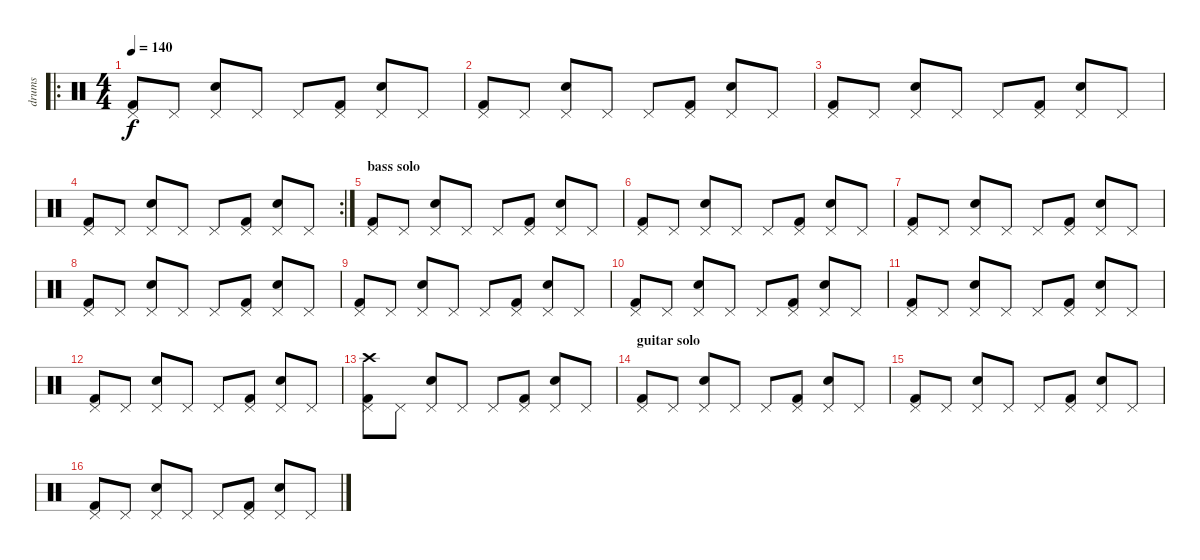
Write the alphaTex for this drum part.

\track ("drums" "drums") {instrument percussion}
\staff {score}
\articulation defaults
\ro
\ts (4 4)
\tempo 140
\clef neutral
\ks c
("Kick (hit) 2" "Pedal Hi-Hat (hit)").8{dy f} "Pedal Hi-Hat (hit)".8 ("Snare (hit) 2" "Pedal Hi-Hat (hit)").8 "Pedal Hi-Hat (hit)".8 "Pedal Hi-Hat (hit)".8 ("Kick (hit) 2" "Pedal Hi-Hat (hit)").8 ("Snare (hit) 2" "Pedal Hi-Hat (hit)").8 "Pedal Hi-Hat (hit)".8 |
("Kick (hit) 2" "Pedal Hi-Hat (hit)").8 "Pedal Hi-Hat (hit)".8 ("Snare (hit) 2" "Pedal Hi-Hat (hit)").8 "Pedal Hi-Hat (hit)".8 "Pedal Hi-Hat (hit)".8 ("Kick (hit) 2" "Pedal Hi-Hat (hit)").8 ("Snare (hit) 2" "Pedal Hi-Hat (hit)").8 "Pedal Hi-Hat (hit)".8 |
("Kick (hit) 2" "Pedal Hi-Hat (hit)").8 "Pedal Hi-Hat (hit)".8 ("Snare (hit) 2" "Pedal Hi-Hat (hit)").8 "Pedal Hi-Hat (hit)".8 "Pedal Hi-Hat (hit)".8 ("Kick (hit) 2" "Pedal Hi-Hat (hit)").8 ("Snare (hit) 2" "Pedal Hi-Hat (hit)").8 "Pedal Hi-Hat (hit)".8 |
\rc 2
("Kick (hit) 2" "Pedal Hi-Hat (hit)").8 "Pedal Hi-Hat (hit)".8 ("Snare (hit) 2" "Pedal Hi-Hat (hit)").8 "Pedal Hi-Hat (hit)".8 "Pedal Hi-Hat (hit)".8 ("Kick (hit) 2" "Pedal Hi-Hat (hit)").8 ("Snare (hit) 2" "Pedal Hi-Hat (hit)").8 "Pedal Hi-Hat (hit)".8 |
\section ("" "bass solo")
("Kick (hit) 2" "Pedal Hi-Hat (hit)").8 "Pedal Hi-Hat (hit)".8 ("Snare (hit) 2" "Pedal Hi-Hat (hit)").8 "Pedal Hi-Hat (hit)".8 "Pedal Hi-Hat (hit)".8 ("Kick (hit) 2" "Pedal Hi-Hat (hit)").8 ("Snare (hit) 2" "Pedal Hi-Hat (hit)").8 "Pedal Hi-Hat (hit)".8 |
("Kick (hit) 2" "Pedal Hi-Hat (hit)").8 "Pedal Hi-Hat (hit)".8 ("Snare (hit) 2" "Pedal Hi-Hat (hit)").8 "Pedal Hi-Hat (hit)".8 "Pedal Hi-Hat (hit)".8 ("Kick (hit) 2" "Pedal Hi-Hat (hit)").8 ("Snare (hit) 2" "Pedal Hi-Hat (hit)").8 "Pedal Hi-Hat (hit)".8 |
("Kick (hit) 2" "Pedal Hi-Hat (hit)").8 "Pedal Hi-Hat (hit)".8 ("Snare (hit) 2" "Pedal Hi-Hat (hit)").8 "Pedal Hi-Hat (hit)".8 "Pedal Hi-Hat (hit)".8 ("Kick (hit) 2" "Pedal Hi-Hat (hit)").8 ("Snare (hit) 2" "Pedal Hi-Hat (hit)").8 "Pedal Hi-Hat (hit)".8 |
("Kick (hit) 2" "Pedal Hi-Hat (hit)").8 "Pedal Hi-Hat (hit)".8 ("Snare (hit) 2" "Pedal Hi-Hat (hit)").8 "Pedal Hi-Hat (hit)".8 "Pedal Hi-Hat (hit)".8 ("Kick (hit) 2" "Pedal Hi-Hat (hit)").8 ("Snare (hit) 2" "Pedal Hi-Hat (hit)").8 "Pedal Hi-Hat (hit)".8 |
("Kick (hit) 2" "Pedal Hi-Hat (hit)").8 "Pedal Hi-Hat (hit)".8 ("Snare (hit) 2" "Pedal Hi-Hat (hit)").8 "Pedal Hi-Hat (hit)".8 "Pedal Hi-Hat (hit)".8 ("Kick (hit) 2" "Pedal Hi-Hat (hit)").8 ("Snare (hit) 2" "Pedal Hi-Hat (hit)").8 "Pedal Hi-Hat (hit)".8 |
("Kick (hit) 2" "Pedal Hi-Hat (hit)").8 "Pedal Hi-Hat (hit)".8 ("Snare (hit) 2" "Pedal Hi-Hat (hit)").8 "Pedal Hi-Hat (hit)".8 "Pedal Hi-Hat (hit)".8 ("Kick (hit) 2" "Pedal Hi-Hat (hit)").8 ("Snare (hit) 2" "Pedal Hi-Hat (hit)").8 "Pedal Hi-Hat (hit)".8 |
("Kick (hit) 2" "Pedal Hi-Hat (hit)").8 "Pedal Hi-Hat (hit)".8 ("Snare (hit) 2" "Pedal Hi-Hat (hit)").8 "Pedal Hi-Hat (hit)".8 "Pedal Hi-Hat (hit)".8 ("Kick (hit) 2" "Pedal Hi-Hat (hit)").8 ("Snare (hit) 2" "Pedal Hi-Hat (hit)").8 "Pedal Hi-Hat (hit)".8 |
("Kick (hit) 2" "Pedal Hi-Hat (hit)").8 "Pedal Hi-Hat (hit)".8 ("Snare (hit) 2" "Pedal Hi-Hat (hit)").8 "Pedal Hi-Hat (hit)".8 "Pedal Hi-Hat (hit)".8 ("Kick (hit) 2" "Pedal Hi-Hat (hit)").8 ("Snare (hit) 2" "Pedal Hi-Hat (hit)").8 "Pedal Hi-Hat (hit)".8 |
("Kick (hit) 2" "Pedal Hi-Hat (hit)" "Crash high (hit)").8 "Pedal Hi-Hat (hit)".8 ("Snare (hit) 2" "Pedal Hi-Hat (hit)").8 "Pedal Hi-Hat (hit)".8 "Pedal Hi-Hat (hit)".8 ("Kick (hit) 2" "Pedal Hi-Hat (hit)").8 ("Snare (hit) 2" "Pedal Hi-Hat (hit)").8 "Pedal Hi-Hat (hit)".8 |
\section ("" "guitar solo")
("Kick (hit) 2" "Pedal Hi-Hat (hit)").8 "Pedal Hi-Hat (hit)".8 ("Snare (hit) 2" "Pedal Hi-Hat (hit)").8 "Pedal Hi-Hat (hit)".8 "Pedal Hi-Hat (hit)".8 ("Kick (hit) 2" "Pedal Hi-Hat (hit)").8 ("Snare (hit) 2" "Pedal Hi-Hat (hit)").8 "Pedal Hi-Hat (hit)".8 |
("Kick (hit) 2" "Pedal Hi-Hat (hit)").8 "Pedal Hi-Hat (hit)".8 ("Snare (hit) 2" "Pedal Hi-Hat (hit)").8 "Pedal Hi-Hat (hit)".8 "Pedal Hi-Hat (hit)".8 ("Kick (hit) 2" "Pedal Hi-Hat (hit)").8 ("Snare (hit) 2" "Pedal Hi-Hat (hit)").8 "Pedal Hi-Hat (hit)".8 |
("Kick (hit) 2" "Pedal Hi-Hat (hit)").8 "Pedal Hi-Hat (hit)".8 ("Snare (hit) 2" "Pedal Hi-Hat (hit)").8 "Pedal Hi-Hat (hit)".8 "Pedal Hi-Hat (hit)".8 ("Kick (hit) 2" "Pedal Hi-Hat (hit)").8 ("Snare (hit) 2" "Pedal Hi-Hat (hit)").8 "Pedal Hi-Hat (hit)".8
